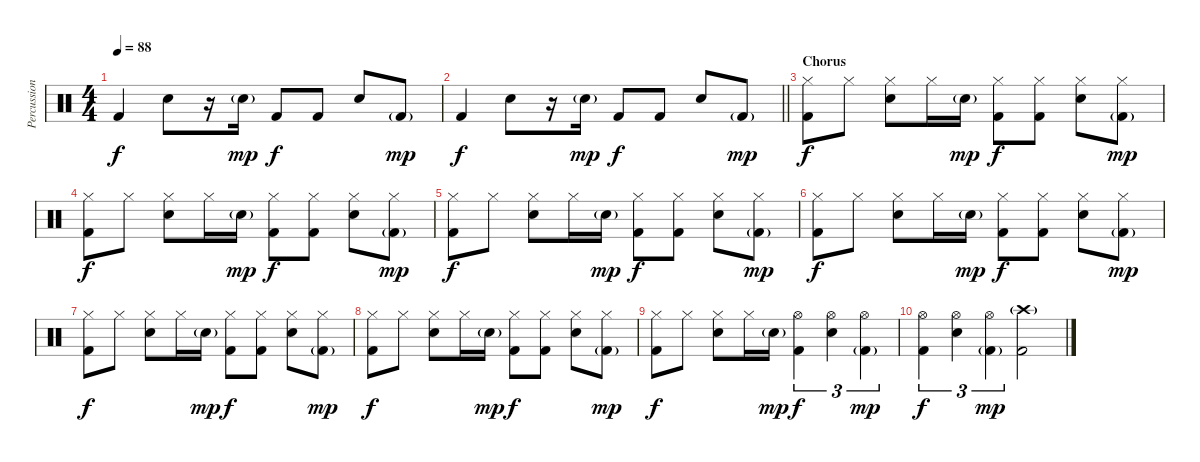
\track ("Percussion" "Percussion") {instrument percussion}
\staff {score}
\articulation defaults
\ts (4 4)
\tempo 88
\clef neutral
\ks c "Kick (hit) 2".4{dy f} "Snare (hit) 2".8
r.16 "Snare (hit) 2"{g}.16{dy mp} "Kick (hit) 2".8{dy f} "Kick (hit) 2".8 "Snare (hit) 2".8 "Kick (hit) 2"{g}.8{dy mp} |
\barLineRight lightlight "Kick (hit) 2".4{dy f} "Snare (hit) 2".8
r.16 "Snare (hit) 2"{g}.16{dy mp} "Kick (hit) 2".8{dy f} "Kick (hit) 2".8 "Snare (hit) 2".8 "Kick (hit) 2"{g}.8{dy mp} |
\section ("" "Chorus")
("Hi-Hat (closed)" "Kick (hit) 2").8{dy f} "Hi-Hat (closed)".8 ("Hi-Hat (closed)" "Snare (hit) 2").8 "Hi-Hat (closed)".16 "Snare (hit) 2"{g}.16{dy mp} ("Hi-Hat (closed)" "Kick (hit) 2").8{dy f} ("Hi-Hat (closed)" "Kick (hit) 2").8 ("Hi-Hat (closed)" "Snare (hit) 2").8 ("Hi-Hat (closed)" "Kick (hit) 2"{g}).8{dy mp} |
("Hi-Hat (closed)" "Kick (hit) 2").8{dy f} "Hi-Hat (closed)".8 ("Hi-Hat (closed)" "Snare (hit) 2").8 "Hi-Hat (closed)".16 "Snare (hit) 2"{g}.16{dy mp} ("Hi-Hat (closed)" "Kick (hit) 2").8{dy f} ("Hi-Hat (closed)" "Kick (hit) 2").8 ("Hi-Hat (closed)" "Snare (hit) 2").8 ("Hi-Hat (closed)" "Kick (hit) 2"{g}).8{dy mp} |
("Hi-Hat (closed)" "Kick (hit) 2").8{dy f} "Hi-Hat (closed)".8 ("Hi-Hat (closed)" "Snare (hit) 2").8 "Hi-Hat (closed)".16 "Snare (hit) 2"{g}.16{dy mp} ("Hi-Hat (closed)" "Kick (hit) 2").8{dy f} ("Hi-Hat (closed)" "Kick (hit) 2").8 ("Hi-Hat (closed)" "Snare (hit) 2").8 ("Hi-Hat (closed)" "Kick (hit) 2"{g}).8{dy mp} |
("Hi-Hat (closed)" "Kick (hit) 2").8{dy f} "Hi-Hat (closed)".8 ("Hi-Hat (closed)" "Snare (hit) 2").8 "Hi-Hat (closed)".16 "Snare (hit) 2"{g}.16{dy mp} ("Hi-Hat (closed)" "Kick (hit) 2").8{dy f} ("Hi-Hat (closed)" "Kick (hit) 2").8 ("Hi-Hat (closed)" "Snare (hit) 2").8 ("Hi-Hat (closed)" "Kick (hit) 2"{g}).8{dy mp} |
("Hi-Hat (closed)" "Kick (hit) 2").8{dy f} "Hi-Hat (closed)".8 ("Hi-Hat (closed)" "Snare (hit) 2").8 "Hi-Hat (closed)".16 "Snare (hit) 2"{g}.16{dy mp} ("Hi-Hat (closed)" "Kick (hit) 2").8{dy f} ("Hi-Hat (closed)" "Kick (hit) 2").8 ("Hi-Hat (closed)" "Snare (hit) 2").8 ("Hi-Hat (closed)" "Kick (hit) 2"{g}).8{dy mp} |
("Hi-Hat (closed)" "Kick (hit) 2").8{dy f} "Hi-Hat (closed)".8 ("Hi-Hat (closed)" "Snare (hit) 2").8 "Hi-Hat (closed)".16 "Snare (hit) 2"{g}.16{dy mp} ("Hi-Hat (closed)" "Kick (hit) 2").8{dy f} ("Hi-Hat (closed)" "Kick (hit) 2").8 ("Hi-Hat (closed)" "Snare (hit) 2").8 ("Hi-Hat (closed)" "Kick (hit) 2"{g}).8{dy mp} |
("Hi-Hat (closed)" "Kick (hit) 2").8{dy f} "Hi-Hat (closed)".8 ("Hi-Hat (closed)" "Snare (hit) 2").8 "Hi-Hat (closed)".16 "Snare (hit) 2"{g}.16{dy mp} ("Hi-Hat (open)" "Kick (hit) 2").4{tu (3 2) dy f} ("Hi-Hat (open)" "Snare (hit) 2").4{tu (3 2)} ("Hi-Hat (open)" "Kick (hit) 2"{g}).4{tu (3 2) dy mp} |
("Hi-Hat (open)" "Kick (hit) 2").4{tu (3 2) dy f} ("Hi-Hat (open)" "Snare (hit) 2").4{tu (3 2)} ("Hi-Hat (open)" "Kick (hit) 2"{g}).4{tu (3 2) dy mp} ("Crash high (hit)"{g} "Kick (hit) 2").2
